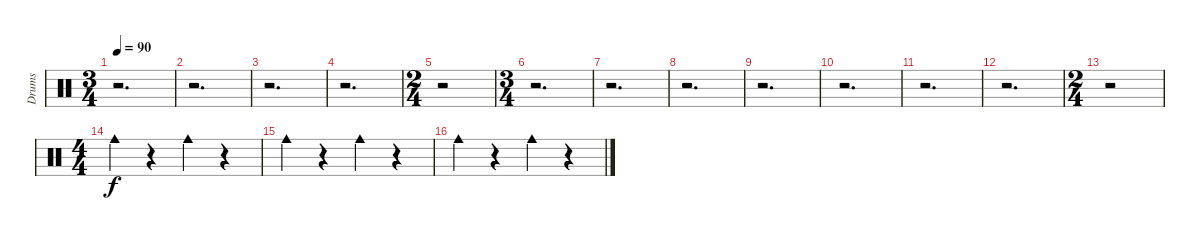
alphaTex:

\track ("Drums" "Drums") {instrument percussion}
\staff {score}
\articulation defaults
\ts (3 4)
\tempo 90
\clef neutral
\ks c
r.2{d dy f} |
r.2{d} |
r.2{d} |
r.2{d} |
\ts (2 4)
r.2 |
\ts (3 4)
r.2{d} |
r.2{d} |
r.2{d} |
r.2{d} |
r.2{d} |
r.2{d} |
r.2{d} |
\ts (2 4)
r.2 |
\ts (4 4)
"Cowbell medium (hit)".4 r.4 "Cowbell medium (hit)".4 r.4 |
"Cowbell medium (hit)".4 r.4 "Cowbell medium (hit)".4 r.4 |
"Cowbell medium (hit)".4 r.4 "Cowbell medium (hit)".4 r.4
